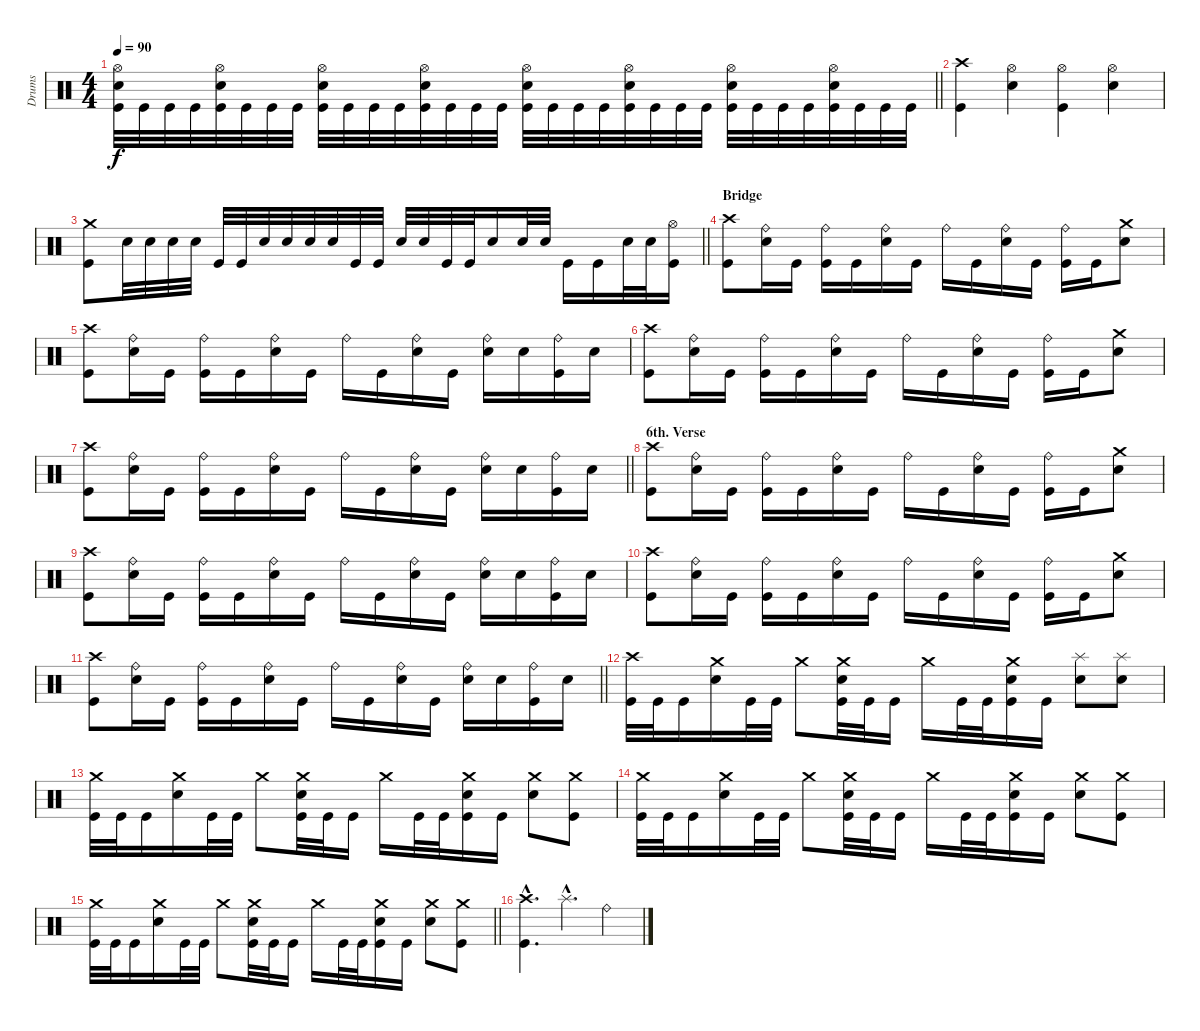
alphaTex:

\track ("Drums" "Drums") {instrument percussion}
\staff {score}
\articulation defaults
\ts (4 4)
\tempo 90
\clef neutral
\barLineRight lightlight
\ks c
("Hi-Hat (open)" "Electric Snare (hit)" "Kick (hit)").32{dy f} "Kick (hit)".32 "Kick (hit)".32 "Kick (hit)".32 ("Hi-Hat (open)" "Electric Snare (hit)" "Kick (hit)").32 "Kick (hit)".32 "Kick (hit)".32 "Kick (hit)".32 ("Hi-Hat (open)" "Electric Snare (hit)" "Kick (hit)").32 "Kick (hit)".32 "Kick (hit)".32 "Kick (hit)".32 ("Hi-Hat (open)" "Electric Snare (hit)" "Kick (hit)").32 "Kick (hit)".32 "Kick (hit)".32 "Kick (hit)".32 ("Hi-Hat (open)" "Electric Snare (hit)" "Kick (hit)").32 "Kick (hit)".32 "Kick (hit)".32 "Kick (hit)".32 ("Hi-Hat (open)" "Electric Snare (hit)" "Kick (hit)").32 "Kick (hit)".32 "Kick (hit)".32 "Kick (hit)".32 ("Hi-Hat (open)" "Electric Snare (hit)" "Kick (hit)").32 "Kick (hit)".32 "Kick (hit)".32 "Kick (hit)".32 ("Hi-Hat (open)" "Electric Snare (hit)" "Kick (hit)").32 "Kick (hit)".32 "Kick (hit)".32 "Kick (hit)".32 |
("Crash high (hit)" "Kick (hit)").4 ("Hi-Hat (open)" "Electric Snare (hit)").4 ("Hi-Hat (open)" "Kick (hit)").4 ("Hi-Hat (open)" "Electric Snare (hit)").4 |
\barLineRight lightlight
("Crash medium (hit)" "Kick (hit)").8 "Electric Snare (hit)".32 "Electric Snare (hit)".32 "Electric Snare (hit)".32 "Electric Snare (hit)".32 "Kick (hit)".32 "Kick (hit)".32 "Electric Snare (hit)".32 "Electric Snare (hit)".32 "Electric Snare (hit)".32 "Electric Snare (hit)".32 "Kick (hit)".32 "Kick (hit)".32 "Electric Snare (hit)".32 "Electric Snare (hit)".32 "Kick (hit)".32 "Kick (hit)".32 "Electric Snare (hit)".16 "Electric Snare (hit)".32 "Electric Snare (hit)".32 "Kick (hit)".16 "Kick (hit)".16 "Electric Snare (hit)".32 "Electric Snare (hit)".32 ("Hi-Hat (open)" "Kick (hit)").16 |
\section ("" "Bridge")
("Crash high (hit)" "Kick (hit)").8 ("Ride (bell)" "Electric Snare (hit)").16 "Kick (hit)".16 ("Ride (bell)" "Kick (hit)").16 "Kick (hit)".16 ("Ride (bell)" "Electric Snare (hit)").16 "Kick (hit)".16 "Ride (bell)".16 "Kick (hit)".16 ("Ride (bell)" "Electric Snare (hit)").16 "Kick (hit)".16 ("Ride (bell)" "Kick (hit)").16 "Kick (hit)".16 ("Crash medium (hit)" "Electric Snare (hit)").8 |
("Crash high (hit)" "Kick (hit)").8 ("Ride (bell)" "Electric Snare (hit)").16 "Kick (hit)".16 ("Ride (bell)" "Kick (hit)").16 "Kick (hit)".16 ("Ride (bell)" "Electric Snare (hit)").16 "Kick (hit)".16 "Ride (bell)".16 "Kick (hit)".16 ("Ride (bell)" "Electric Snare (hit)").16 "Kick (hit)".16 ("Ride (bell)" "Electric Snare (hit)").16 "Electric Snare (hit)".16 ("Ride (bell)" "Kick (hit)").16 "Electric Snare (hit)".16 |
("Crash high (hit)" "Kick (hit)").8 ("Ride (bell)" "Electric Snare (hit)").16 "Kick (hit)".16 ("Ride (bell)" "Kick (hit)").16 "Kick (hit)".16 ("Ride (bell)" "Electric Snare (hit)").16 "Kick (hit)".16 "Ride (bell)".16 "Kick (hit)".16 ("Ride (bell)" "Electric Snare (hit)").16 "Kick (hit)".16 ("Ride (bell)" "Kick (hit)").16 "Kick (hit)".16 ("Crash medium (hit)" "Electric Snare (hit)").8 |
\barLineRight lightlight
("Crash high (hit)" "Kick (hit)").8 ("Ride (bell)" "Electric Snare (hit)").16 "Kick (hit)".16 ("Ride (bell)" "Kick (hit)").16 "Kick (hit)".16 ("Ride (bell)" "Electric Snare (hit)").16 "Kick (hit)".16 "Ride (bell)".16 "Kick (hit)".16 ("Ride (bell)" "Electric Snare (hit)").16 "Kick (hit)".16 ("Ride (bell)" "Electric Snare (hit)").16 "Electric Snare (hit)".16 ("Ride (bell)" "Kick (hit)").16 "Electric Snare (hit)".16 |
\section ("" "6th. Verse")
("Crash high (hit)" "Kick (hit)").8 ("Ride (bell)" "Electric Snare (hit)").16 "Kick (hit)".16 ("Ride (bell)" "Kick (hit)").16 "Kick (hit)".16 ("Ride (bell)" "Electric Snare (hit)").16 "Kick (hit)".16 "Ride (bell)".16 "Kick (hit)".16 ("Ride (bell)" "Electric Snare (hit)").16 "Kick (hit)".16 ("Ride (bell)" "Kick (hit)").16 "Kick (hit)".16 ("Crash medium (hit)" "Electric Snare (hit)").8 |
("Crash high (hit)" "Kick (hit)").8 ("Ride (bell)" "Electric Snare (hit)").16 "Kick (hit)".16 ("Ride (bell)" "Kick (hit)").16 "Kick (hit)".16 ("Ride (bell)" "Electric Snare (hit)").16 "Kick (hit)".16 "Ride (bell)".16 "Kick (hit)".16 ("Ride (bell)" "Electric Snare (hit)").16 "Kick (hit)".16 ("Ride (bell)" "Electric Snare (hit)").16 "Electric Snare (hit)".16 ("Ride (bell)" "Kick (hit)").16 "Electric Snare (hit)".16 |
("Crash high (hit)" "Kick (hit)").8 ("Ride (bell)" "Electric Snare (hit)").16 "Kick (hit)".16 ("Ride (bell)" "Kick (hit)").16 "Kick (hit)".16 ("Ride (bell)" "Electric Snare (hit)").16 "Kick (hit)".16 "Ride (bell)".16 "Kick (hit)".16 ("Ride (bell)" "Electric Snare (hit)").16 "Kick (hit)".16 ("Ride (bell)" "Kick (hit)").16 "Kick (hit)".16 ("Crash medium (hit)" "Electric Snare (hit)").8 |
\barLineRight lightlight
("Crash high (hit)" "Kick (hit)").8 ("Ride (bell)" "Electric Snare (hit)").16 "Kick (hit)".16 ("Ride (bell)" "Kick (hit)").16 "Kick (hit)".16 ("Ride (bell)" "Electric Snare (hit)").16 "Kick (hit)".16 "Ride (bell)".16 "Kick (hit)".16 ("Ride (bell)" "Electric Snare (hit)").16 "Kick (hit)".16 ("Ride (bell)" "Electric Snare (hit)").16 "Electric Snare (hit)".16 ("Ride (bell)" "Kick (hit)").16 "Electric Snare (hit)".16 |
("Crash high (hit)" "Kick (hit)").32 "Kick (hit)".32 "Kick (hit)".16 ("Crash medium (hit)" "Electric Snare (hit)").16 "Kick (hit)".32 "Kick (hit)".32 "Crash medium (hit)".8 ("Crash medium (hit)" "Electric Snare (hit)" "Kick (hit)").32 "Kick (hit)".32 "Kick (hit)".16 "Crash medium (hit)".16 "Kick (hit)".32 "Kick (hit)".32 ("Crash medium (hit)" "Electric Snare (hit)" "Kick (hit)").16 "Kick (hit)".16 ("Splash (hit)" "Electric Snare (hit)").8 ("Splash (hit)" "Electric Snare (hit)").8 |
("Crash medium (hit)" "Kick (hit)").32 "Kick (hit)".32 "Kick (hit)".16 ("Crash medium (hit)" "Electric Snare (hit)").16 "Kick (hit)".32 "Kick (hit)".32 "Crash medium (hit)".8 ("Crash medium (hit)" "Electric Snare (hit)" "Kick (hit)").32 "Kick (hit)".32 "Kick (hit)".16 "Crash medium (hit)".16 "Kick (hit)".32 "Kick (hit)".32 ("Crash medium (hit)" "Electric Snare (hit)" "Kick (hit)").16 "Kick (hit)".16 ("Crash medium (hit)" "Electric Snare (hit)").8 ("Crash medium (hit)" "Kick (hit)").8 |
("Crash medium (hit)" "Kick (hit)").32 "Kick (hit)".32 "Kick (hit)".16 ("Crash medium (hit)" "Electric Snare (hit)").16 "Kick (hit)".32 "Kick (hit)".32 "Crash medium (hit)".8 ("Crash medium (hit)" "Electric Snare (hit)" "Kick (hit)").32 "Kick (hit)".32 "Kick (hit)".16 "Crash medium (hit)".16 "Kick (hit)".32 "Kick (hit)".32 ("Crash medium (hit)" "Electric Snare (hit)" "Kick (hit)").16 "Kick (hit)".16 ("Crash medium (hit)" "Electric Snare (hit)").8 ("Crash medium (hit)" "Kick (hit)").8 |
\barLineRight lightlight
("Crash medium (hit)" "Kick (hit)").32 "Kick (hit)".32 "Kick (hit)".16 ("Crash medium (hit)" "Electric Snare (hit)").16 "Kick (hit)".32 "Kick (hit)".32 "Crash medium (hit)".8 ("Crash medium (hit)" "Electric Snare (hit)" "Kick (hit)").32 "Kick (hit)".32 "Kick (hit)".16 "Crash medium (hit)".16 "Kick (hit)".32 "Kick (hit)".32 ("Crash medium (hit)" "Electric Snare (hit)" "Kick (hit)").16 "Kick (hit)".16 ("Crash medium (hit)" "Electric Snare (hit)").8 ("Crash medium (hit)" "Kick (hit)").8 |
("Crash high (hit)"{hac} "Kick (hit)"{hac}).4{d} "Splash (hit)"{hac}.4{d} "Ride (bell)".4
